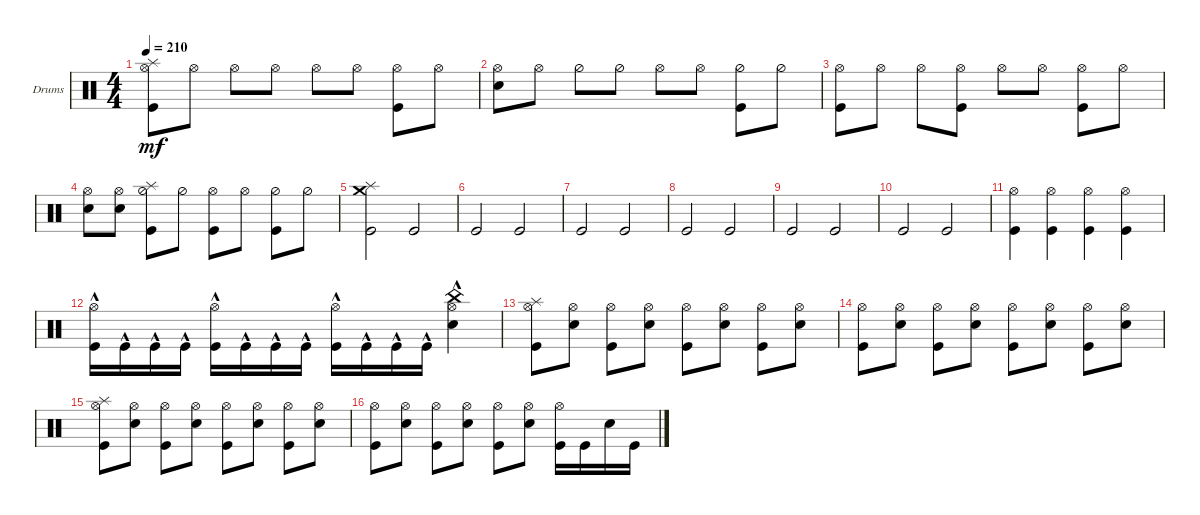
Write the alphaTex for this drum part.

\bracketExtendMode groupsimilarinstruments
\firstSystemTrackNameOrientation horizontal
\otherSystemsTrackNameOrientation horizontal
\track ("Drumkit" "Drums") {instrument percussion}
\staff {score}
\articulation defaults
\ts (4 4)
\tempo 210
\clef neutral
\ks c
("Kick (hit)" "Splash (hit)" "Hi-Hat (open)").8{dy mf} "Hi-Hat (open)".8 "Hi-Hat (open)".8 "Hi-Hat (open)".8 "Hi-Hat (open)".8 "Hi-Hat (open)".8 ("Kick (hit)" "Hi-Hat (open)").8 "Hi-Hat (open)".8 |
("Snare (hit) 2" "Hi-Hat (open)").8 "Hi-Hat (open)".8 "Hi-Hat (half)".8 "Hi-Hat (half)".8 "Hi-Hat (open)".8 "Hi-Hat (open)".8 ("Kick (hit)" "Hi-Hat (half)").8 "Hi-Hat (half)".8 |
("Kick (hit)" "Hi-Hat (open)").8 "Hi-Hat (open)".8 "Hi-Hat (open)".8 ("Kick (hit)" "Hi-Hat (open)").8 "Hi-Hat (open)".8 "Hi-Hat (open)".8 ("Kick (hit)" "Hi-Hat (open)").8 "Hi-Hat (open)".8 |
("Snare (hit) 2" "Hi-Hat (open)").8 ("Snare (hit) 2" "Hi-Hat (open)").8 ("Kick (hit)" "Splash (hit)" "Hi-Hat (half)").8 "Hi-Hat (half)".8 ("Kick (hit)" "Hi-Hat (open)").8 "Hi-Hat (open)".8 ("Kick (hit)" "Hi-Hat (half)").8 "Hi-Hat (half)".8 |
("Kick (hit)" "Splash (hit)" "Crash medium (hit)").2 "Kick (hit)".2 |
"Kick (hit)".2 "Kick (hit)".2 |
"Kick (hit)".2 "Kick (hit)".2 |
"Kick (hit)".2 "Kick (hit)".2 |
"Kick (hit)".2 "Kick (hit)".2 |
"Kick (hit)".2 "Kick (hit)".2 |
("Kick (hit)" "Hi-Hat (open)").4 ("Kick (hit)" "Hi-Hat (open)").4 ("Kick (hit)" "Hi-Hat (open)").4 ("Kick (hit)" "Hi-Hat (open)").4 |
("Kick (hit)"{hac} "Hi-Hat (open)"{hac}).16 "Kick (hit)"{hac}.16 "Kick (hit)"{hac}.16 "Kick (hit)"{hac}.16 ("Kick (hit)"{hac} "Hi-Hat (open)"{hac}).16 "Kick (hit)"{hac}.16 "Kick (hit)"{hac}.16 "Kick (hit)"{hac}.16 ("Kick (hit)"{hac} "Hi-Hat (open)"{hac}).16 "Kick (hit)"{hac}.16 "Kick (hit)"{hac}.16 "Kick (hit)"{hac}.16 ("Snare (hit) 2"{hac} "China (hit)"{hac} "Hi-Hat (open)"{hac}).4 |
("Kick (hit)" "Hi-Hat (open)" "Splash (hit)").8 ("Snare (hit) 2" "Hi-Hat (open)").8 ("Kick (hit)" "Hi-Hat (open)").8 ("Snare (hit) 2" "Hi-Hat (open)").8 ("Kick (hit)" "Hi-Hat (open)").8 ("Snare (hit) 2" "Hi-Hat (open)").8 ("Kick (hit)" "Hi-Hat (open)").8 ("Snare (hit) 2" "Hi-Hat (open)").8 |
("Kick (hit)" "Hi-Hat (open)").8 ("Snare (hit) 2" "Hi-Hat (open)").8 ("Kick (hit)" "Hi-Hat (open)").8 ("Snare (hit) 2" "Hi-Hat (open)").8 ("Kick (hit)" "Hi-Hat (open)").8 ("Snare (hit) 2" "Hi-Hat (open)").8 ("Kick (hit)" "Hi-Hat (open)").8 ("Snare (hit) 2" "Hi-Hat (open)").8 |
("Kick (hit)" "Hi-Hat (open)" "Splash (hit)").8 ("Snare (hit) 2" "Hi-Hat (open)").8 ("Kick (hit)" "Hi-Hat (open)").8 ("Snare (hit) 2" "Hi-Hat (open)").8 ("Kick (hit)" "Hi-Hat (open)").8 ("Snare (hit) 2" "Hi-Hat (open)").8 ("Kick (hit)" "Hi-Hat (open)").8 ("Snare (hit) 2" "Hi-Hat (open)").8 |
("Kick (hit)" "Hi-Hat (open)").8 ("Snare (hit) 2" "Hi-Hat (open)").8 ("Kick (hit)" "Hi-Hat (open)").8 ("Snare (hit) 2" "Hi-Hat (open)").8 ("Kick (hit)" "Hi-Hat (open)").8 ("Snare (hit) 2" "Hi-Hat (open)").8 ("Kick (hit)" "Hi-Hat (open)").16 "Kick (hit)".16 "Snare (hit) 2".16 "Kick (hit)".16
